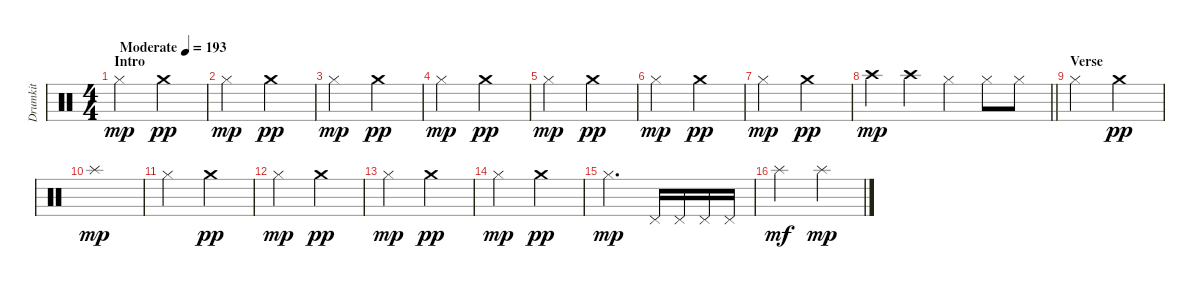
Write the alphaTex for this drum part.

\track ("Drumkit" "Drumkit") {instrument percussion}
\staff {score}
\articulation defaults
\ts (4 4)
\section ("" "Intro")
\tempo (193 "Moderate")
\clef neutral
\ks c "Hi-Hat (closed)".2{dy mp} "Crash medium (hit)".2{dy pp}
|
"Hi-Hat (closed)".2{dy mp} "Crash medium (hit)".2{dy pp} |
"Hi-Hat (closed)".2{dy mp} "Crash medium (hit)".2{dy pp} |
"Hi-Hat (closed)".2{dy mp} "Crash medium (hit)".2{dy pp} |
"Hi-Hat (closed)".2{dy mp} "Crash medium (hit)".2{dy pp} |
"Hi-Hat (closed)".2{dy mp} "Crash medium (hit)".2{dy pp} |
"Hi-Hat (closed)".2{dy mp} "Crash medium (hit)".2{dy pp} |
\barLineRight lightlight "Crash high (hit)".4{dy mp} "Crash high (hit)".4 "Hi-Hat (closed)".4 "Hi-Hat (closed)".8 "Hi-Hat (closed)".8
|
\section ("" "Verse")
"Hi-Hat (closed)".2 "Crash medium (hit)".2{dy pp} |
"Splash (hit)".1{dy mp} |
"Hi-Hat (closed)".2 "Crash medium (hit)".2{dy pp} |
"Hi-Hat (closed)".2{dy mp} "Crash medium (hit)".2{dy pp} |
"Hi-Hat (closed)".2{dy mp} "Crash medium (hit)".2{dy pp} |
"Hi-Hat (closed)".2{dy mp} "Crash medium (hit)".2{dy pp} |
"Hi-Hat (closed)".2{d dy mp} "Pedal Hi-Hat (hit)".16 "Pedal Hi-Hat (hit)".16 "Pedal Hi-Hat (hit)".16 "Pedal Hi-Hat (hit)".16 |
"Splash (hit)".2{dy mf} "Splash (hit)".2{dy mp}
